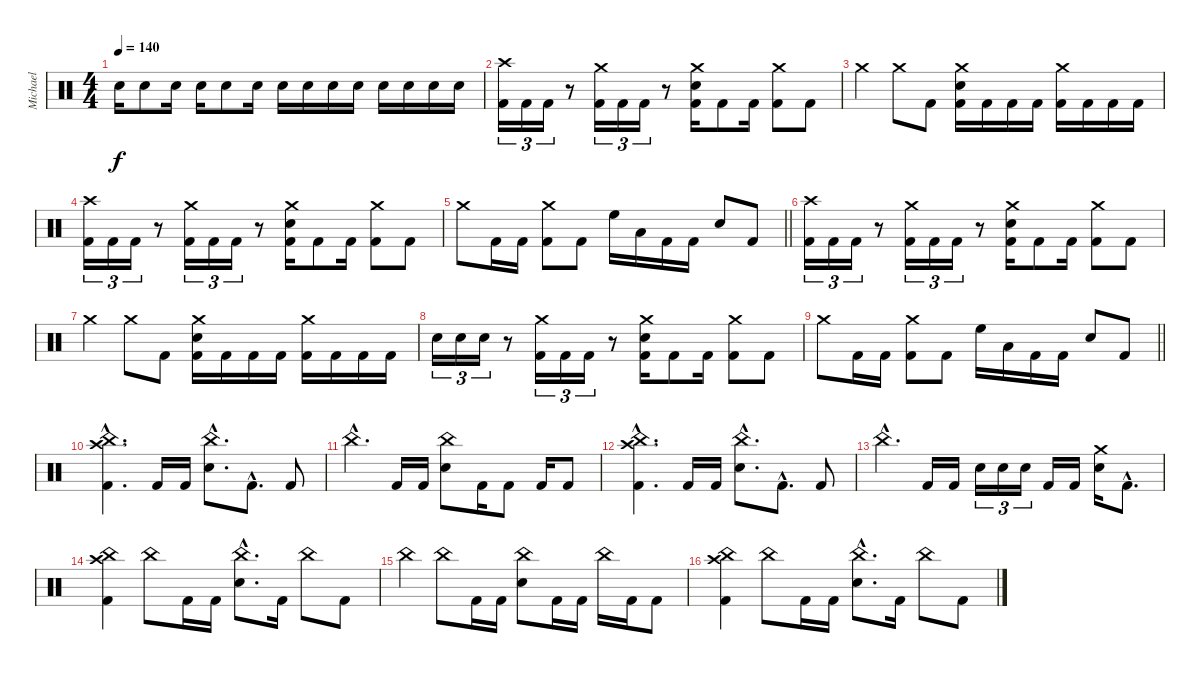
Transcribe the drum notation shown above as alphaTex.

\track ("Michael" "Michael") {instrument percussion}
\staff {score}
\articulation defaults
\ts (4 4)
\tempo 140
\clef neutral
\ks c "Electric Snare (hit)".16{dy f} "Electric Snare (hit)".8 "Electric Snare (hit)".16 "Electric Snare (hit)".16 "Electric Snare (hit)".8 "Electric Snare (hit)".16 "Electric Snare (hit)".16 "Electric Snare (hit)".16 "Electric Snare (hit)".16 "Electric Snare (hit)".16 "Electric Snare (hit)".16 "Electric Snare (hit)".16 "Electric Snare (hit)".16 "Electric Snare (hit)".16
|
("Crash high (hit)" "Kick (hit) 2").16{tu (3 2)} "Kick (hit) 2".16{tu (3 2)} "Kick (hit) 2".16{tu (3 2)} r.8 ("Crash medium (hit)" "Kick (hit) 2").16{tu (3 2)} "Kick (hit) 2".16{tu (3 2)} "Kick (hit) 2".16{tu (3 2)} r.8 ("Crash medium (hit)" "Electric Snare (hit)" "Kick (hit) 2").16 "Kick (hit) 2".8 "Kick (hit) 2".16 ("Crash medium (hit)" "Kick (hit) 2").8 "Kick (hit) 2".8 |
"Crash medium (hit)".4 "Crash medium (hit)".8 "Kick (hit) 2".8 ("Crash medium (hit)" "Electric Snare (hit)" "Kick (hit) 2").16 "Kick (hit) 2".16 "Kick (hit) 2".16 "Kick (hit) 2".16 ("Crash medium (hit)" "Kick (hit) 2").16 "Kick (hit) 2".16 "Kick (hit) 2".16 "Kick (hit) 2".16 |
("Crash high (hit)" "Kick (hit) 2").16{tu (3 2)} "Kick (hit) 2".16{tu (3 2)} "Kick (hit) 2".16{tu (3 2)} r.8 ("Crash medium (hit)" "Kick (hit) 2").16{tu (3 2)} "Kick (hit) 2".16{tu (3 2)} "Kick (hit) 2".16{tu (3 2)} r.8 ("Crash medium (hit)" "Electric Snare (hit)" "Kick (hit) 2").16 "Kick (hit) 2".8 "Kick (hit) 2".16 ("Crash medium (hit)" "Kick (hit) 2").8 "Kick (hit) 2".8 |
\barLineRight lightlight "Crash medium (hit)".8 "Kick (hit) 2".16 "Kick (hit) 2".16
("Crash medium (hit)" "Kick (hit) 2").8 "Kick (hit) 2".8 "High Floor Tom (hit)".16 "Low Tom (hit)".16 "Kick (hit) 2".16 "Kick (hit) 2".16 "Electric Snare (hit)".8 "Kick (hit) 2".8 |
("Crash high (hit)" "Kick (hit) 2").16{tu (3 2)} "Kick (hit) 2".16{tu (3 2)} "Kick (hit) 2".16{tu (3 2)} r.8 ("Crash medium (hit)" "Kick (hit) 2").16{tu (3 2)} "Kick (hit) 2".16{tu (3 2)} "Kick (hit) 2".16{tu (3 2)} r.8 ("Crash medium (hit)" "Electric Snare (hit)" "Kick (hit) 2").16 "Kick (hit) 2".8 "Kick (hit) 2".16 ("Crash medium (hit)" "Kick (hit) 2").8 "Kick (hit) 2".8 |
"Crash medium (hit)".4 "Crash medium (hit)".8 "Kick (hit) 2".8 ("Crash medium (hit)" "Electric Snare (hit)" "Kick (hit) 2").16 "Kick (hit) 2".16 "Kick (hit) 2".16 "Kick (hit) 2".16 ("Crash medium (hit)" "Kick (hit) 2").16 "Kick (hit) 2".16 "Kick (hit) 2".16 "Kick (hit) 2".16 |
"Electric Snare (hit)".16{tu (3 2)} "Electric Snare (hit)".16{tu (3 2)} "Electric Snare (hit)".16{tu (3 2)} r.8 ("Crash medium (hit)" "Kick (hit) 2").16{tu (3 2)} "Kick (hit) 2".16{tu (3 2)} "Kick (hit) 2".16{tu (3 2)} r.8 ("Crash medium (hit)" "Electric Snare (hit)" "Kick (hit) 2").16 "Kick (hit) 2".8 "Kick (hit) 2".16 ("Crash medium (hit)" "Kick (hit) 2").8 "Kick (hit) 2".8 |
\barLineRight lightlight "Crash medium (hit)".8 "Kick (hit) 2".16 "Kick (hit) 2".16
("Crash medium (hit)" "Kick (hit) 2").8 "Kick (hit) 2".8 "High Floor Tom (hit)".16 "Low Tom (hit)".16 "Kick (hit) 2".16 "Kick (hit) 2".16 "Electric Snare (hit)".8 "Kick (hit) 2".8 |
("Crash high (hit)"{hac} "China (hit)"{hac} "Kick (hit) 2"{hac}).4{d} "Kick (hit) 2".16 "Kick (hit) 2".16 ("China (hit)"{hac} "Electric Snare (hit)"{hac}).8{d} "Kick (hit) 2"{hac}.8{d} "Kick (hit) 2".8 |
"China (hit)"{hac}.4{d} "Kick (hit) 2".16 "Kick (hit) 2".16 ("China (hit)" "Electric Snare (hit)").8 "Kick (hit) 2".16 "Kick (hit) 2".8 "Kick (hit) 2".16 "Kick (hit) 2".8 |
("Crash high (hit)"{hac} "China (hit)"{hac} "Kick (hit) 2"{hac}).4{d} "Kick (hit) 2".16 "Kick (hit) 2".16 ("China (hit)"{hac} "Electric Snare (hit)"{hac}).8{d} "Kick (hit) 2"{hac}.8{d} "Kick (hit) 2".8 |
"China (hit)"{hac}.4{d} "Kick (hit) 2".16 "Kick (hit) 2".16 "Electric Snare (hit)".16{tu (3 2)} "Electric Snare (hit)".16{tu (3 2)} "Electric Snare (hit)".16{tu (3 2)} "Kick (hit) 2".16 "Kick (hit) 2".16 ("Crash medium (hit)" "Electric Snare (hit)").16 "Kick (hit) 2"{hac}.8{d} |
("Crash high (hit)" "China (hit)" "Kick (hit) 2").4 "China (hit)".8 "Kick (hit) 2".16 "Kick (hit) 2".16 ("China (hit)"{hac} "Electric Snare (hit)"{hac}).8{d} "Kick (hit) 2".16 "China (hit)".8 "Kick (hit) 2".8 |
"China (hit)".4 "China (hit)".8 "Kick (hit) 2".16 "Kick (hit) 2".16 ("China (hit)" "Electric Snare (hit)").8 "Kick (hit) 2".16 "Kick (hit) 2".16 "China (hit)".16 "Kick (hit) 2".16 "Kick (hit) 2".8 |
("Crash high (hit)" "China (hit)" "Kick (hit) 2").4 "China (hit)".8 "Kick (hit) 2".16 "Kick (hit) 2".16 ("China (hit)"{hac} "Electric Snare (hit)"{hac}).8{d} "Kick (hit) 2".16 "China (hit)".8 "Kick (hit) 2".8
